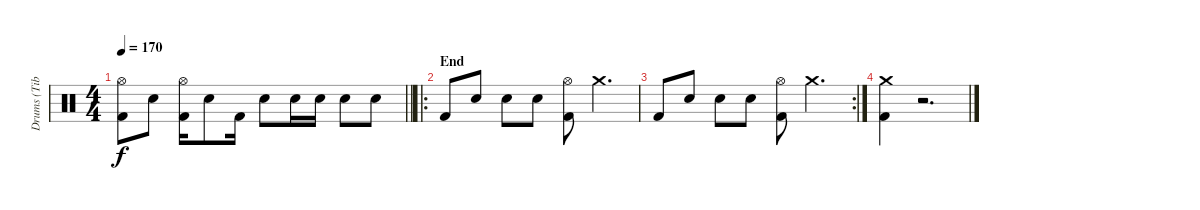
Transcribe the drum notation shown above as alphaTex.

\track ("Drums (Tibcsi Kiss)" "Drums (Tib") {instrument percussion}
\staff {score}
\articulation defaults
\ts (4 4)
\tempo 170
\clef neutral
\barLineRight lightlight
\ks c
("Hi-Hat (open)" "Kick (hit) 2").8{dy f} "Snare (hit) 2".8 ("Hi-Hat (open)" "Kick (hit) 2").16 "Snare (hit) 2".8 "Kick (hit) 2".16 "Snare (hit) 2".8 "Snare (hit) 2".16 "Snare (hit) 2".16 "Snare (hit) 2".8 "Snare (hit) 2".8 |
\ro
\section ("" "End")
"Kick (hit) 2".8 "Snare (hit) 2".8 "Snare (hit) 2".8 "Snare (hit) 2".8 ("Hi-Hat (open)" "Kick (hit) 2").8 "Crash medium (hit)".4{d} |
\rc 2 "Kick (hit) 2".8 "Snare (hit) 2".8 "Snare (hit) 2".8 "Snare (hit) 2".8
("Hi-Hat (open)" "Kick (hit) 2").8 "Crash medium (hit)".4{d} |
("Crash medium (hit)" "Kick (hit) 2").4 r.2{d}
